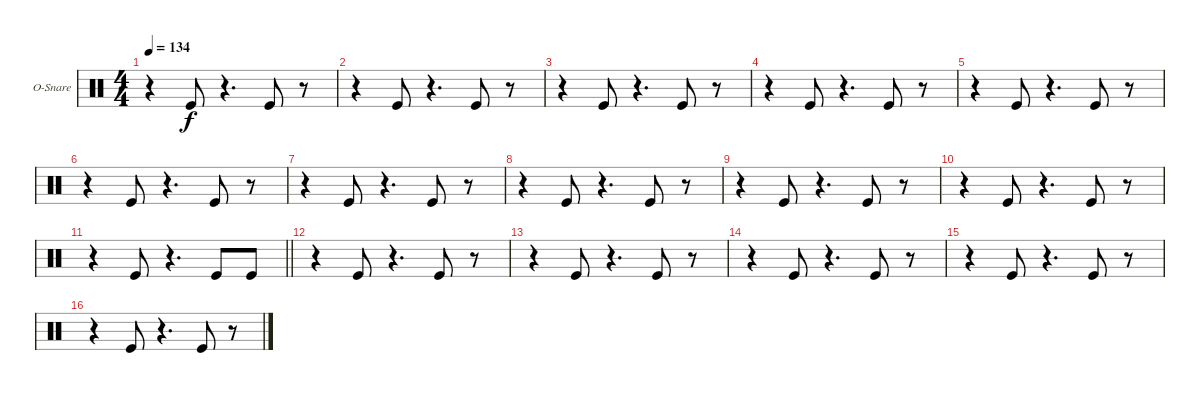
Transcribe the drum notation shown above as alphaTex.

\bracketExtendMode groupsimilarinstruments
\firstSystemTrackNameOrientation horizontal
\otherSystemsTrackNameOrientation horizontal
\track ("Open Snare" "O-Snare") {instrument percussion}
\staff {score}
\articulation defaults
\ts (4 4)
\scale
0.245232
\tempo 134
\accidentals auto
\clef neutral
\ottava regular
\simile none
\scale
0.25
\ks c
r.4{dy f} "Kick (hit)".8 r.4{d} "Kick (hit)".8 r.8 |
\scale
0.254768
\scale
0.25 r.4 "Kick (hit)".8 r.4{d} "Kick (hit)".8 r.8 |
\scale
0.245232
\scale
0.25 r.4 "Kick (hit)".8 r.4{d} "Kick (hit)".8 r.8 |
\scale
0.254768
\scale
0.25 r.4 "Kick (hit)".8 r.4{d} "Kick (hit)".8 r.8 |
\scale
0.245232
\scale
0.25 r.4 "Kick (hit)".8 r.4{d} "Kick (hit)".8 r.8 |
\scale
0.254768
\scale
0.25 r.4 "Kick (hit)".8 r.4{d} "Kick (hit)".8 r.8 |
\scale
0.245232
\scale
0.25 r.4 "Kick (hit)".8 r.4{d} "Kick (hit)".8 r.8 |
\scale
0.254768
\scale
0.25 r.4 "Kick (hit)".8 r.4{d} "Kick (hit)".8 r.8 |
\scale
0.223602
\scale
0.25 r.4 "Kick (hit)".8 r.4{d} "Kick (hit)".8 r.8 |
\scale
0.232298
\scale
0.25 r.4 "Kick (hit)".8 r.4{d} "Kick (hit)".8 r.8 |
\scale
0.223602
\scale
0.25
\barLineRight lightlight
r.4 "Kick (hit)".8 r.4{d} "Kick (hit)".8 "Kick (hit)".8 |
\scale
0.320497
\scale
0.25 r.4 "Kick (hit)".8 r.4{d} "Kick (hit)".8 r.8 |
\scale
0.221187
\scale
0.25 r.4 "Kick (hit)".8 r.4{d} "Kick (hit)".8 r.8 |
\scale
0.204889
\scale
0.25 r.4 "Kick (hit)".8 r.4{d} "Kick (hit)".8 r.8 |
\scale
0.329453
\scale
0.25 r.4 "Kick (hit)".8 r.4{d} "Kick (hit)".8 r.8 |
\scale
0.24447
\scale
0.25 r.4 "Kick (hit)".8 r.4{d} "Kick (hit)".8 r.8
